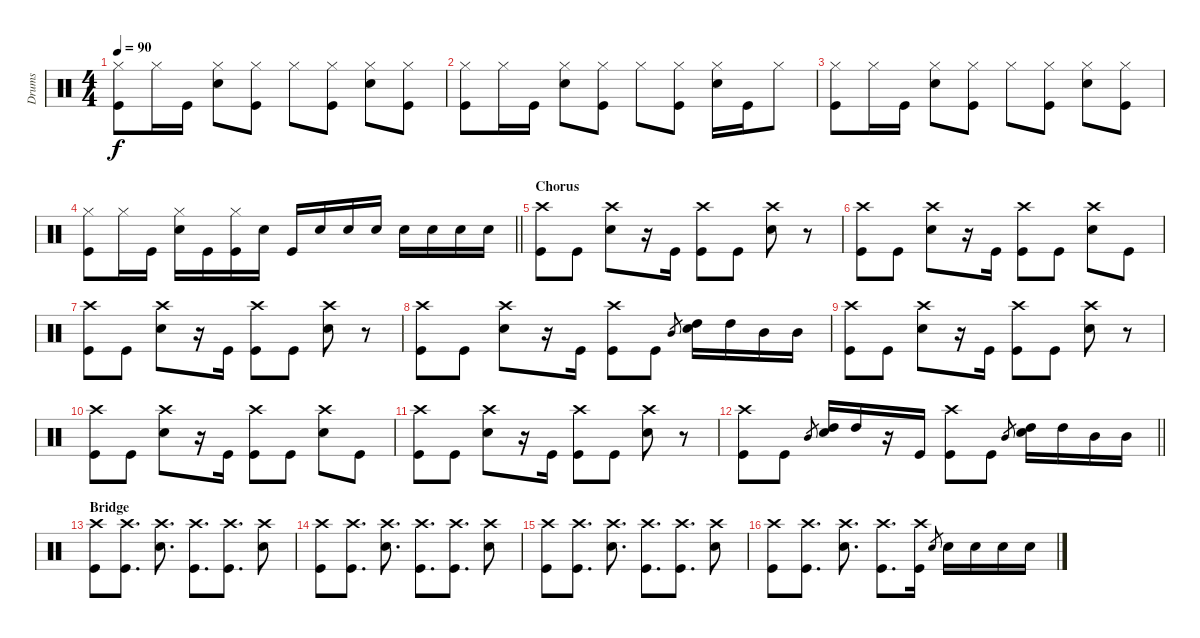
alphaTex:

\track ("Drums" "Drums") {instrument percussion}
\staff {score}
\articulation defaults
\ts (4 4)
\tempo 90
\clef neutral
\ks c
("Hi-Hat (closed)" "Kick (hit)").8{dy f} "Hi-Hat (closed)".16 "Kick (hit)".16 ("Hi-Hat (closed)" "Electric Snare (hit)").8 ("Hi-Hat (closed)" "Kick (hit)").8 "Hi-Hat (closed)".8 ("Hi-Hat (closed)" "Kick (hit)").8 ("Hi-Hat (closed)" "Electric Snare (hit)").8 ("Hi-Hat (closed)" "Kick (hit)").8 |
("Hi-Hat (closed)" "Kick (hit)").8 "Hi-Hat (closed)".16 "Kick (hit)".16 ("Hi-Hat (closed)" "Electric Snare (hit)").8 ("Hi-Hat (closed)" "Kick (hit)").8 "Hi-Hat (closed)".8 ("Hi-Hat (closed)" "Kick (hit)").8 ("Hi-Hat (closed)" "Electric Snare (hit)").16 "Kick (hit)".16 "Hi-Hat (closed)".8 |
("Hi-Hat (closed)" "Kick (hit)").8 "Hi-Hat (closed)".16 "Kick (hit)".16 ("Hi-Hat (closed)" "Electric Snare (hit)").8 ("Hi-Hat (closed)" "Kick (hit)").8 "Hi-Hat (closed)".8 ("Hi-Hat (closed)" "Kick (hit)").8 ("Hi-Hat (closed)" "Electric Snare (hit)").8 ("Hi-Hat (closed)" "Kick (hit)").8 |
\barLineRight lightlight
("Hi-Hat (closed)" "Kick (hit)").8 "Hi-Hat (closed)".16 "Kick (hit)".16 ("Hi-Hat (closed)" "Electric Snare (hit)").16 "Kick (hit)".16 ("Hi-Hat (closed)" "Kick (hit)").16 "Electric Snare (hit)".16 "Kick (hit)".16 "Electric Snare (hit)".16 "Electric Snare (hit)".16 "Electric Snare (hit)".16 "Electric Snare (hit)".16 "Electric Snare (hit)".16 "Electric Snare (hit)".16 "Electric Snare (hit)".16 |
\section ("" "Chorus ")
("Crash high (hit)" "Kick (hit)").8 "Kick (hit)".8 ("Crash high (hit)" "Electric Snare (hit)").8 r.16 "Kick (hit)".16 ("Crash high (hit)" "Kick (hit)").8 "Kick (hit)".8 ("Crash high (hit)" "Electric Snare (hit)").8 r.8 |
("Crash high (hit)" "Kick (hit)").8 "Kick (hit)".8 ("Crash high (hit)" "Electric Snare (hit)").8 r.16 "Kick (hit)".16 ("Crash high (hit)" "Kick (hit)").8 "Kick (hit)".8 ("Crash high (hit)" "Electric Snare (hit)").8 "Kick (hit)".8 |
("Crash high (hit)" "Kick (hit)").8 "Kick (hit)".8 ("Crash high (hit)" "Electric Snare (hit)").8 r.16 "Kick (hit)".16 ("Crash high (hit)" "Kick (hit)").8 "Kick (hit)".8 ("Crash high (hit)" "Electric Snare (hit)").8 r.8 |
("Crash high (hit)" "Kick (hit)").8 "Kick (hit)".8 ("Crash high (hit)" "Electric Snare (hit)").8 r.16 "Kick (hit)".16 ("Crash high (hit)" "Kick (hit)").8 "Kick (hit)".8 "Mid Tom (hit)".8{gr} ("High Tom (hit)" "Electric Snare (hit)").16 "High Tom (hit)".16 "Mid Tom (hit)".16 "Mid Tom (hit)".16 |
("Crash high (hit)" "Kick (hit)").8 "Kick (hit)".8 ("Crash high (hit)" "Electric Snare (hit)").8 r.16 "Kick (hit)".16 ("Crash high (hit)" "Kick (hit)").8 "Kick (hit)".8 ("Crash high (hit)" "Electric Snare (hit)").8 r.8 |
("Crash high (hit)" "Kick (hit)").8 "Kick (hit)".8 ("Crash high (hit)" "Electric Snare (hit)").8 r.16 "Kick (hit)".16 ("Crash high (hit)" "Kick (hit)").8 "Kick (hit)".8 ("Crash high (hit)" "Electric Snare (hit)").8 "Kick (hit)".8 |
("Crash high (hit)" "Kick (hit)").8 "Kick (hit)".8 ("Crash high (hit)" "Electric Snare (hit)").8 r.16 "Kick (hit)".16 ("Crash high (hit)" "Kick (hit)").8 "Kick (hit)".8 ("Crash high (hit)" "Electric Snare (hit)").8 r.8 |
\barLineRight lightlight
("Crash high (hit)" "Kick (hit)").8 "Kick (hit)".8 "Mid Tom (hit)".8{gr} ("High Tom (hit)" "Electric Snare (hit)").16 "High Tom (hit)".16 r.16 "Kick (hit)".16 ("Crash high (hit)" "Kick (hit)").8 "Kick (hit)".8 "Mid Tom (hit)".8{gr} ("High Tom (hit)" "Electric Snare (hit)").16 "High Tom (hit)".16 "Mid Tom (hit)".16 "Mid Tom (hit)".16 |
\section ("" "Bridge ")
("Crash high (hit)" "Kick (hit)").8 ("Crash high (hit)" "Kick (hit)").8{d} ("Crash high (hit)" "Electric Snare (hit)").8{d} ("Crash high (hit)" "Kick (hit)").8{d} ("Crash high (hit)" "Kick (hit)").8{d} ("Crash high (hit)" "Electric Snare (hit)").8 |
("Crash high (hit)" "Kick (hit)").8 ("Crash high (hit)" "Kick (hit)").8{d} ("Crash high (hit)" "Electric Snare (hit)").8{d} ("Crash high (hit)" "Kick (hit)").8{d} ("Crash high (hit)" "Kick (hit)").8{d} ("Crash high (hit)" "Electric Snare (hit)").8 |
("Crash high (hit)" "Kick (hit)").8 ("Crash high (hit)" "Kick (hit)").8{d} ("Crash high (hit)" "Electric Snare (hit)").8{d} ("Crash high (hit)" "Kick (hit)").8{d} ("Crash high (hit)" "Kick (hit)").8{d} ("Crash high (hit)" "Electric Snare (hit)").8 |
("Crash high (hit)" "Kick (hit)").8 ("Crash high (hit)" "Kick (hit)").8{d} ("Crash high (hit)" "Electric Snare (hit)").8{d} ("Crash high (hit)" "Kick (hit)").8{d} ("Crash high (hit)" "Kick (hit)").16 "Electric Snare (hit)".8{gr} "Electric Snare (hit)".16 "Electric Snare (hit)".16 "Electric Snare (hit)".16 "Electric Snare (hit)".16
